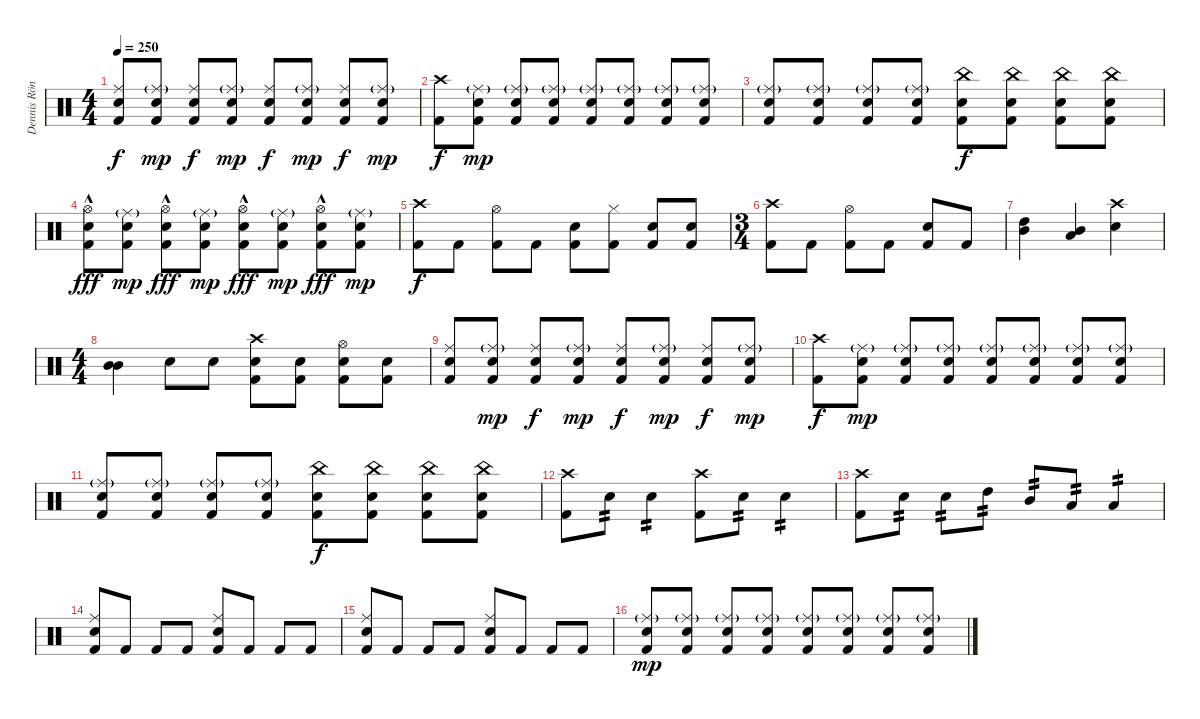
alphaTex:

\track ("Dennis Röndum" "Dennis Rön") {instrument percussion}
\staff {score}
\articulation defaults
\ts (4 4)
\tempo 250
\clef neutral
\ks c
("Snare (hit) 2" "Ride (middle)" "Kick (hit) 2").8{dy f} ("Snare (hit) 2" "Ride (middle)"{g} "Kick (hit) 2").8{dy mp} ("Snare (hit) 2" "Ride (middle)" "Kick (hit) 2").8{dy f} ("Snare (hit) 2" "Ride (middle)"{g} "Kick (hit) 2").8{dy mp} ("Snare (hit) 2" "Ride (middle)" "Kick (hit) 2").8{dy f} ("Snare (hit) 2" "Ride (middle)"{g} "Kick (hit) 2").8{dy mp} ("Snare (hit) 2" "Ride (middle)" "Kick (hit) 2").8{dy f} ("Snare (hit) 2" "Ride (middle)"{g} "Kick (hit) 2").8{dy mp} |
("Crash high (hit)" "Kick (hit) 2").8{dy f} ("Snare (hit) 2" "Ride (middle)"{g} "Kick (hit) 2").8{dy mp} ("Snare (hit) 2" "Ride (middle)"{g} "Kick (hit) 2").8 ("Snare (hit) 2" "Ride (middle)"{g} "Kick (hit) 2").8 ("Snare (hit) 2" "Ride (middle)"{g} "Kick (hit) 2").8 ("Snare (hit) 2" "Ride (middle)"{g} "Kick (hit) 2").8 ("Snare (hit) 2" "Ride (middle)"{g} "Kick (hit) 2").8 ("Snare (hit) 2" "Ride (middle)"{g} "Kick (hit) 2").8 |
("Snare (hit) 2" "Ride (middle)"{g} "Kick (hit) 2").8 ("Snare (hit) 2" "Ride (middle)"{g} "Kick (hit) 2").8 ("Snare (hit) 2" "Ride (middle)"{g} "Kick (hit) 2").8 ("Snare (hit) 2" "Ride (middle)"{g} "Kick (hit) 2").8 ("China (hit)" "Snare (hit) 2" "Kick (hit) 2").8{dy f} ("China (hit)" "Snare (hit) 2" "Kick (hit) 2").8 ("China (hit)" "Snare (hit) 2" "Kick (hit) 2").8 ("China (hit)" "Snare (hit) 2" "Kick (hit) 2").8 |
("Snare (hit) 2" "Hi-Hat (open)"{hac} "Kick (hit) 2").8{dy fff} ("Snare (hit) 2" "Ride (middle)"{g} "Kick (hit) 2").8{dy mp} ("Snare (hit) 2" "Hi-Hat (open)"{hac} "Kick (hit) 2").8{dy fff} ("Snare (hit) 2" "Ride (middle)"{g} "Kick (hit) 2").8{dy mp} ("Snare (hit) 2" "Hi-Hat (open)"{hac} "Kick (hit) 2").8{dy fff} ("Snare (hit) 2" "Ride (middle)"{g} "Kick (hit) 2").8{dy mp} ("Snare (hit) 2" "Hi-Hat (open)"{hac} "Kick (hit) 2").8{dy fff} ("Snare (hit) 2" "Ride (middle)"{g} "Kick (hit) 2").8{dy mp} |
("Crash high (hit)" "Kick (hit) 2").8{dy f} "Kick (hit) 2".8 ("Hi-Hat (open)" "Kick (hit) 2").8 "Kick (hit) 2".8 ("Snare (hit) 2" "Kick (hit) 2").8 ("Hi-Hat (closed)" "Kick (hit) 2").8 ("Snare (hit) 2" "Kick (hit) 2").8 ("Snare (hit) 2" "Kick (hit) 2").8 |
\ts (3 4)
("Crash high (hit)" "Kick (hit) 2").8 "Kick (hit) 2".8 ("Hi-Hat (open)" "Kick (hit) 2").8 "Kick (hit) 2".8 ("Snare (hit) 2" "Kick (hit) 2").8 "Kick (hit) 2".8 |
("Mid Tom (hit)" "High Tom (hit)").4 ("Mid Tom (hit)" "Low Floor Tom (hit)").4 ("Crash high (hit)" "Snare (hit) 2").4 |
\ts (4 4)
("Mid Tom (hit)" "Mid Tom (hit)").4 "Snare (hit) 2".8 "Snare (hit) 2".8 ("Crash high (hit)" "Kick (hit) 2" "Snare (hit) 2").8 ("Kick (hit) 2" "Snare (hit) 2").8 ("Hi-Hat (open)" "Kick (hit) 2" "Snare (hit) 2").8 ("Kick (hit) 2" "Snare (hit) 2").8 |
("Snare (hit) 2" "Ride (middle)" "Kick (hit) 2").8 ("Snare (hit) 2" "Ride (middle)"{g} "Kick (hit) 2").8{dy mp} ("Snare (hit) 2" "Ride (middle)" "Kick (hit) 2").8{dy f} ("Snare (hit) 2" "Ride (middle)"{g} "Kick (hit) 2").8{dy mp} ("Snare (hit) 2" "Ride (middle)" "Kick (hit) 2").8{dy f} ("Snare (hit) 2" "Ride (middle)"{g} "Kick (hit) 2").8{dy mp} ("Snare (hit) 2" "Ride (middle)" "Kick (hit) 2").8{dy f} ("Snare (hit) 2" "Ride (middle)"{g} "Kick (hit) 2").8{dy mp} |
("Crash high (hit)" "Kick (hit) 2").8{dy f} ("Snare (hit) 2" "Ride (middle)"{g} "Kick (hit) 2").8{dy mp} ("Snare (hit) 2" "Ride (middle)"{g} "Kick (hit) 2").8 ("Snare (hit) 2" "Ride (middle)"{g} "Kick (hit) 2").8 ("Snare (hit) 2" "Ride (middle)"{g} "Kick (hit) 2").8 ("Snare (hit) 2" "Ride (middle)"{g} "Kick (hit) 2").8 ("Snare (hit) 2" "Ride (middle)"{g} "Kick (hit) 2").8 ("Snare (hit) 2" "Ride (middle)"{g} "Kick (hit) 2").8 |
("Snare (hit) 2" "Ride (middle)"{g} "Kick (hit) 2").8 ("Snare (hit) 2" "Ride (middle)"{g} "Kick (hit) 2").8 ("Snare (hit) 2" "Ride (middle)"{g} "Kick (hit) 2").8 ("Snare (hit) 2" "Ride (middle)"{g} "Kick (hit) 2").8 ("China (hit)" "Snare (hit) 2" "Kick (hit) 2").8{dy f} ("China (hit)" "Snare (hit) 2" "Kick (hit) 2").8 ("China (hit)" "Snare (hit) 2" "Kick (hit) 2").8 ("China (hit)" "Snare (hit) 2" "Kick (hit) 2").8 |
("Crash high (hit)" "Kick (hit) 2").8 "Snare (hit) 2".8{tp 2} "Snare (hit) 2".4{tp 2} ("Crash high (hit)" "Kick (hit) 2").8 "Snare (hit) 2".8{tp 2} "Snare (hit) 2".4{tp 2} |
("Crash high (hit)" "Kick (hit) 2").8 "Snare (hit) 2".8{tp 2} "Snare (hit) 2".8{tp 2} "High Tom (hit)".8{tp 2} "Mid Tom (hit)".8{tp 2} "Low Floor Tom (hit)".8{tp 2} "Low Floor Tom (hit)".4{tp 2} |
("Ride (middle)" "Snare (hit) 2" "Kick (hit) 2").8 "Kick (hit) 2".8 "Kick (hit) 2".8 "Kick (hit) 2".8 ("Ride (middle)" "Snare (hit) 2" "Kick (hit) 2").8 "Kick (hit) 2".8 "Kick (hit) 2".8 "Kick (hit) 2".8 |
("Ride (middle)" "Snare (hit) 2" "Kick (hit) 2").8 "Kick (hit) 2".8 "Kick (hit) 2".8 "Kick (hit) 2".8 ("Snare (hit) 2" "Ride (middle)" "Kick (hit) 2").8 "Kick (hit) 2".8 "Kick (hit) 2".8 "Kick (hit) 2".8 |
("Snare (hit) 2" "Ride (middle)"{g} "Kick (hit) 2").8{dy mp} ("Snare (hit) 2" "Ride (middle)"{g} "Kick (hit) 2").8 ("Snare (hit) 2" "Ride (middle)"{g} "Kick (hit) 2").8 ("Snare (hit) 2" "Ride (middle)"{g} "Kick (hit) 2").8 ("Snare (hit) 2" "Ride (middle)"{g} "Kick (hit) 2").8 ("Snare (hit) 2" "Ride (middle)"{g} "Kick (hit) 2").8 ("Snare (hit) 2" "Ride (middle)"{g} "Kick (hit) 2").8 ("Snare (hit) 2" "Ride (middle)"{g} "Kick (hit) 2").8
